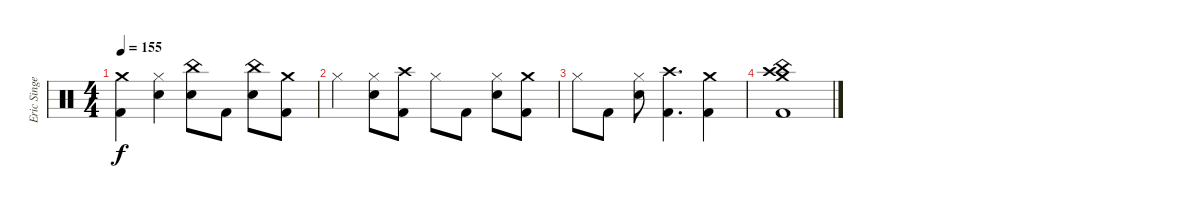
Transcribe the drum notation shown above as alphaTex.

\track ("Eric Singer" "Eric Singe") {instrument percussion}
\staff {score}
\articulation defaults
\ts (4 4)
\tempo 155
\clef neutral
\ks c
("Crash medium (hit)" "Kick (hit) 2").4{dy f} ("Hi-Hat (closed)" "Snare (hit) 2").4 ("China (hit)" "Snare (hit) 2").8 "Kick (hit) 2".8 ("China (hit)" "Snare (hit) 2").8 ("Crash medium (hit)" "Kick (hit) 2").8 |
"Hi-Hat (closed)".4 ("Hi-Hat (closed)" "Snare (hit) 2").8 ("Crash high (hit)" "Kick (hit) 2").8 "Hi-Hat (closed)".8 "Kick (hit) 2".8 ("Hi-Hat (closed)" "Snare (hit) 2").8 ("Crash medium (hit)" "Kick (hit) 2").8 |
"Hi-Hat (closed)".8 "Kick (hit) 2".8 ("Hi-Hat (closed)" "Snare (hit) 2").8 ("Crash high (hit)" "Kick (hit) 2").4{d} ("Crash medium (hit)" "Kick (hit) 2").4 |
("Crash medium (hit)" "Crash high (hit)" "China (hit)" "Kick (hit) 2").1
